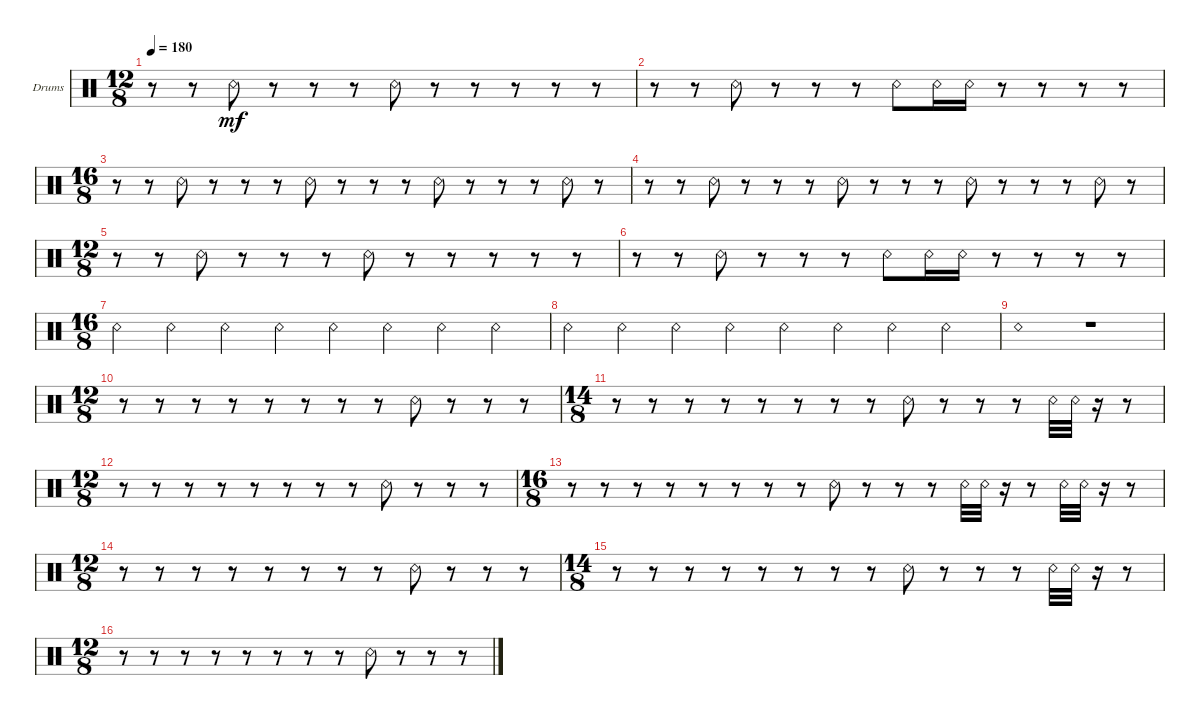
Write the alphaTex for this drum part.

\defaultSystemsLayout 4
\bracketExtendMode groupsimilarinstruments
\firstSystemTrackNameOrientation horizontal
\otherSystemsTrackNameOrientation horizontal
\track ("Snare 2" "Drums") {instrument percussion}
\staff {score}
\articulation defaults
\ts (12 8)
\tempo 180
\clef neutral
\ks c
r.8{dy mf} r.8 "Snare (rim shot)".8 r.8 r.8 r.8 "Snare (rim shot)".8 r.8 r.8 r.8 r.8 r.8 |
r.8 r.8 "Snare (rim shot)".8 r.8 r.8 r.8 "Snare (rim shot)".8 "Snare (rim shot)".16 "Snare (rim shot)".16 r.8 r.8 r.8 r.8 |
\ts (16 8)
\beaming (8 2 2 2 2 2 2 2 1 1)
r.8 r.8 "Snare (rim shot)".8 r.8 r.8 r.8 "Snare (rim shot)".8 r.8 r.8 r.8 "Snare (rim shot)".8 r.8 r.8 r.8 "Snare (rim shot)".8 r.8 |
r.8 r.8 "Snare (rim shot)".8 r.8 r.8 r.8 "Snare (rim shot)".8 r.8 r.8 r.8 "Snare (rim shot)".8 r.8 r.8 r.8 "Snare (rim shot)".8 r.8 |
\ts (12 8)
r.8 r.8 "Snare (rim shot)".8 r.8 r.8 r.8 "Snare (rim shot)".8 r.8 r.8 r.8 r.8 r.8 |
r.8 r.8 "Snare (rim shot)".8 r.8 r.8 r.8 "Snare (rim shot)".8 "Snare (rim shot)".16 "Snare (rim shot)".16 r.8 r.8 r.8 r.8 |
\ts (16 8)
"Snare (rim shot)".4 "Snare (rim shot)".4 "Snare (rim shot)".4 "Snare (rim shot)".4 "Snare (rim shot)".4 "Snare (rim shot)".4 "Snare (rim shot)".4 "Snare (rim shot)".4 |
"Snare (rim shot)".4 "Snare (rim shot)".4 "Snare (rim shot)".4 "Snare (rim shot)".4 "Snare (rim shot)".4 "Snare (rim shot)".4 "Snare (rim shot)".4 "Snare (rim shot)".4 |
"Snare (rim shot)".1 r.1 |
\ts (12 8)
r.8 r.8 r.8 r.8 r.8 r.8 r.8 r.8 "Snare (rim shot)".8 r.8 r.8 r.8 |
\ts (14 8)
r.8 r.8 r.8 r.8 r.8 r.8 r.8 r.8 "Snare (rim shot)".8 r.8 r.8 r.8 "Snare (rim shot)".32 "Snare (rim shot)".32 r.16 r.8 |
\ts (12 8)
r.8 r.8 r.8 r.8 r.8 r.8 r.8 r.8 "Snare (rim shot)".8 r.8 r.8 r.8 |
\ts (16 8)
r.8 r.8 r.8 r.8 r.8 r.8 r.8 r.8 "Snare (rim shot)".8 r.8 r.8 r.8 "Snare (rim shot)".32 "Snare (rim shot)".32 r.16 r.8 "Snare (rim shot)".32 "Snare (rim shot)".32 r.16 r.8 |
\ts (12 8)
r.8 r.8 r.8 r.8 r.8 r.8 r.8 r.8 "Snare (rim shot)".8 r.8 r.8 r.8 |
\ts (14 8)
r.8 r.8 r.8 r.8 r.8 r.8 r.8 r.8 "Snare (rim shot)".8 r.8 r.8 r.8 "Snare (rim shot)".32 "Snare (rim shot)".32 r.16 r.8 |
\ts (12 8)
r.8 r.8 r.8 r.8 r.8 r.8 r.8 r.8 "Snare (rim shot)".8 r.8 r.8 r.8
